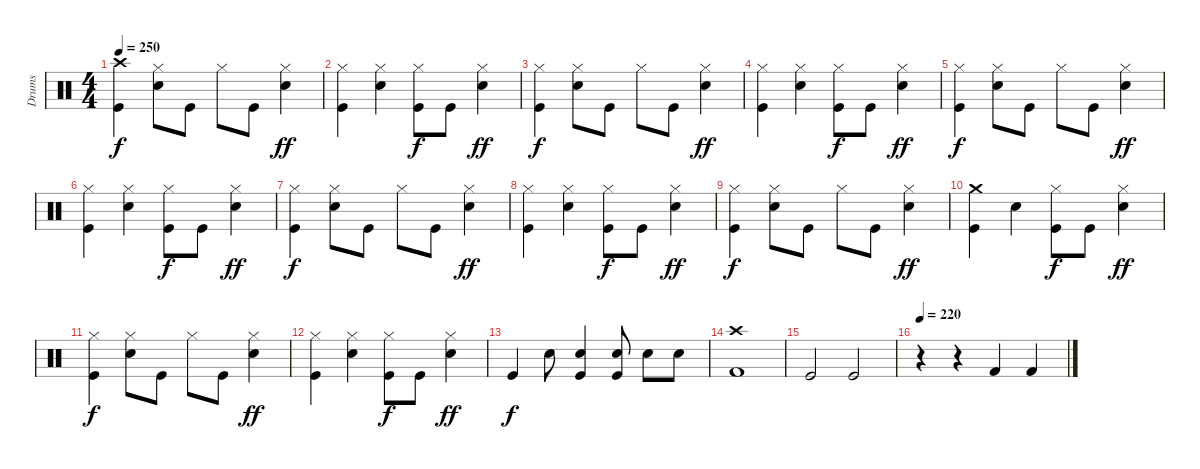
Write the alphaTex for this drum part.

\track ("Drums" "Drums") {instrument percussion}
\staff {score}
\articulation defaults
\ts (4 4)
\tempo 250
\clef neutral
\ks c
("Crash high (hit)" "Kick (hit)").4{dy f} ("Hi-Hat (closed)" "Snare (hit) 2").8 "Kick (hit)".8 "Hi-Hat (closed)".8 "Kick (hit)".8 ("Hi-Hat (closed)" "Snare (hit) 2").4{dy ff} |
("Hi-Hat (closed)" "Kick (hit)").4 ("Hi-Hat (closed)" "Snare (hit) 2").4 ("Hi-Hat (closed)" "Kick (hit)").8{dy f} "Kick (hit)".8 ("Hi-Hat (closed)" "Snare (hit) 2").4{dy ff} |
("Hi-Hat (closed)" "Kick (hit)").4{dy f} ("Hi-Hat (closed)" "Snare (hit) 2").8 "Kick (hit)".8 "Hi-Hat (closed)".8 "Kick (hit)".8 ("Hi-Hat (closed)" "Snare (hit) 2").4{dy ff} |
("Hi-Hat (closed)" "Kick (hit)").4 ("Hi-Hat (closed)" "Snare (hit) 2").4 ("Hi-Hat (closed)" "Kick (hit)").8{dy f} "Kick (hit)".8 ("Hi-Hat (closed)" "Snare (hit) 2").4{dy ff} |
("Hi-Hat (closed)" "Kick (hit)").4{dy f} ("Hi-Hat (closed)" "Snare (hit) 2").8 "Kick (hit)".8 "Hi-Hat (closed)".8 "Kick (hit)".8 ("Hi-Hat (closed)" "Snare (hit) 2").4{dy ff} |
("Hi-Hat (closed)" "Kick (hit)").4 ("Hi-Hat (closed)" "Snare (hit) 2").4 ("Hi-Hat (closed)" "Kick (hit)").8{dy f} "Kick (hit)".8 ("Hi-Hat (closed)" "Snare (hit) 2").4{dy ff} |
("Hi-Hat (closed)" "Kick (hit)").4{dy f} ("Hi-Hat (closed)" "Snare (hit) 2").8 "Kick (hit)".8 "Hi-Hat (closed)".8 "Kick (hit)".8 ("Hi-Hat (closed)" "Snare (hit) 2").4{dy ff} |
("Hi-Hat (closed)" "Kick (hit)").4 ("Hi-Hat (closed)" "Snare (hit) 2").4 ("Hi-Hat (closed)" "Kick (hit)").8{dy f} "Kick (hit)".8 ("Hi-Hat (closed)" "Snare (hit) 2").4{dy ff} |
("Hi-Hat (closed)" "Kick (hit)").4{dy f} ("Hi-Hat (closed)" "Snare (hit) 2").8 "Kick (hit)".8 "Hi-Hat (closed)".8 "Kick (hit)".8 ("Hi-Hat (closed)" "Snare (hit) 2").4{dy ff} |
("Crash medium (hit)" "Kick (hit)").4 "Snare (hit) 2".4 ("Hi-Hat (closed)" "Kick (hit)").8{dy f} "Kick (hit)".8 ("Hi-Hat (closed)" "Snare (hit) 2").4{dy ff} |
("Hi-Hat (closed)" "Kick (hit)").4{dy f} ("Hi-Hat (closed)" "Snare (hit) 2").8 "Kick (hit)".8 "Hi-Hat (closed)".8 "Kick (hit)".8 ("Hi-Hat (closed)" "Snare (hit) 2").4{dy ff} |
("Hi-Hat (closed)" "Kick (hit)").4 ("Hi-Hat (closed)" "Snare (hit) 2").4 ("Hi-Hat (closed)" "Kick (hit)").8{dy f} "Kick (hit)".8 ("Hi-Hat (closed)" "Snare (hit) 2").4{dy ff} |
"Kick (hit)".4{dy f} "Snare (hit) 2".8 ("Snare (hit) 2" "Kick (hit)").4 ("Snare (hit) 2" "Kick (hit)").8 "Snare (hit) 2".8 "Snare (hit) 2".8 |
("Kick (hit) 2" "Crash high (hit)").1 |
"Kick (hit)".2 "Kick (hit)".2 |
\tempo 220
r.4 r.4 "Kick (hit) 2".4 "Kick (hit) 2".4
